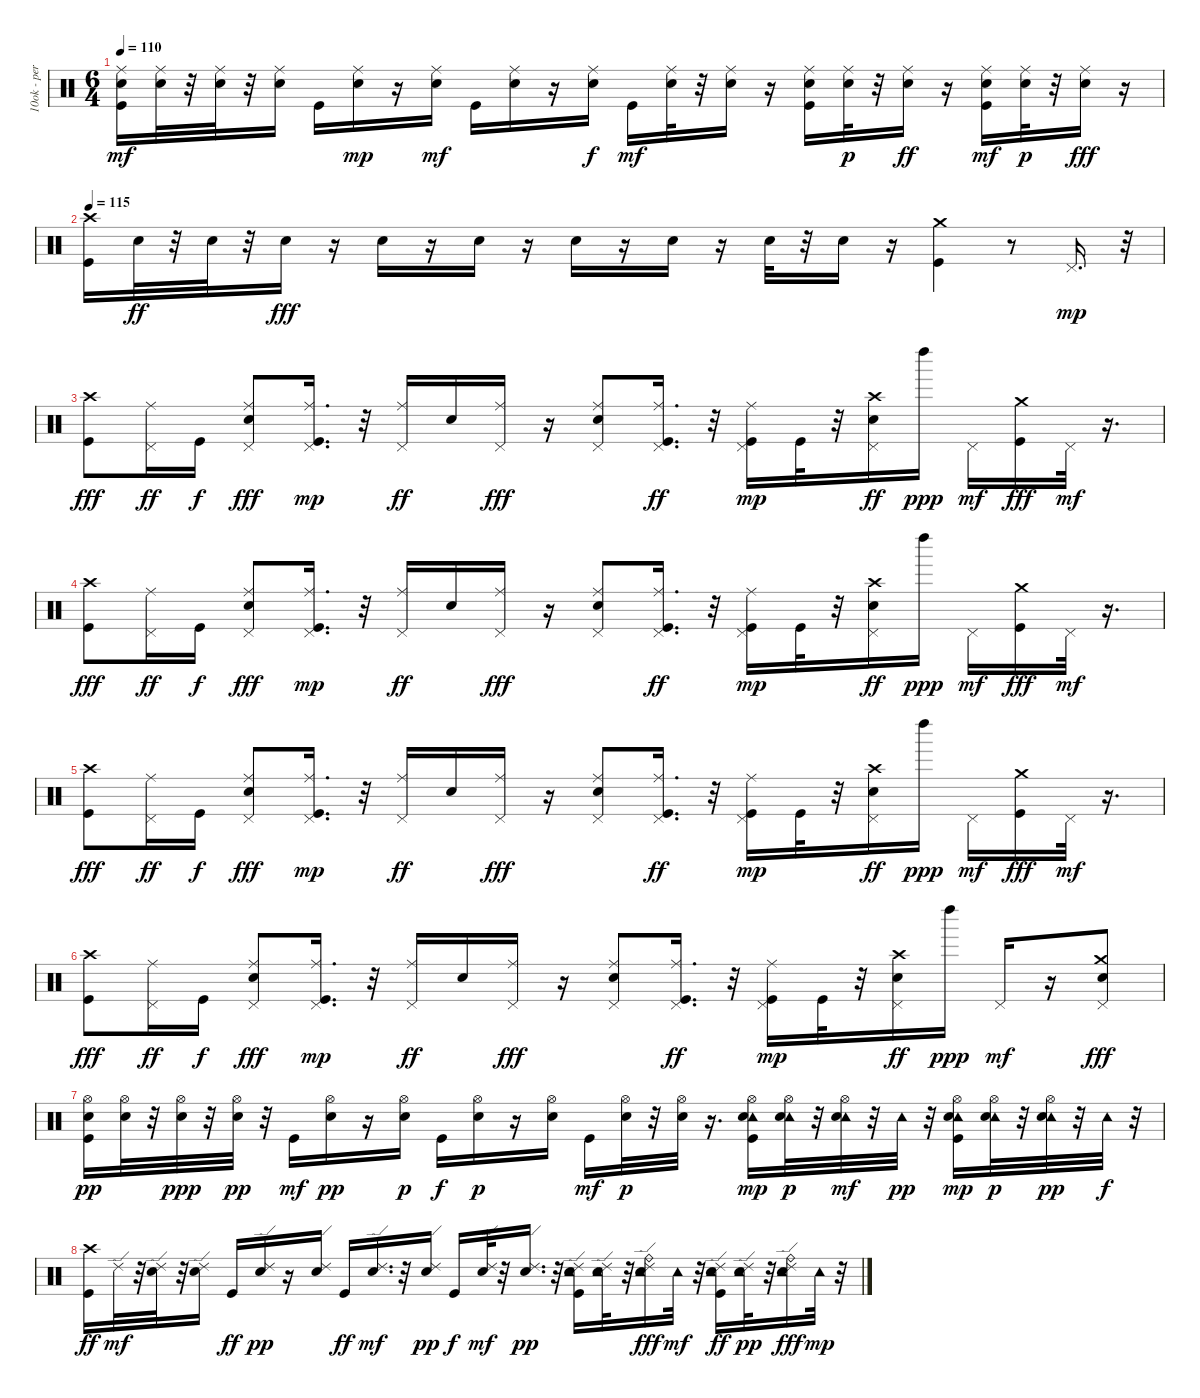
\track ("10ok - percussioni" "10ok - per") {instrument percussion}
\staff {score}
\articulation defaults
\ts (6 4)
\tempo 110
\clef neutral
\ks c
("Snare (hit) 2" "Ride (middle)" "Kick (hit)").16{dy mf} ("Snare (hit) 2" "Ride (middle)").32 r.32 ("Snare (hit) 2" "Ride (middle)").32 r.32 ("Snare (hit) 2" "Ride (middle)").16 "Kick (hit)".16 ("Snare (hit) 2" "Ride (middle)").16{dy mp} r.16 ("Snare (hit) 2" "Ride (middle)").16{dy mf} "Kick (hit)".16 ("Snare (hit) 2" "Ride (middle)").16 r.16 ("Snare (hit) 2" "Ride (middle)").16{dy f} "Kick (hit)".16{dy mf} ("Snare (hit) 2" "Ride (middle)").32 r.32 ("Snare (hit) 2" "Ride (middle)").16 r.16 ("Snare (hit) 2" "Ride (middle)" "Kick (hit)").16 ("Snare (hit) 2" "Ride (middle)").32{dy p} r.32 ("Snare (hit) 2" "Ride (middle)").16{dy ff} r.16 ("Snare (hit) 2" "Ride (middle)" "Kick (hit)").16{dy mf} ("Snare (hit) 2" "Ride (middle)").32{dy p} r.32 ("Snare (hit) 2" "Ride (middle)").16{dy fff} r.16 |
\tempo 115
("Crash high (hit)" "Kick (hit)").16 "Snare (hit) 2".32{dy ff} r.32 "Snare (hit) 2".32 r.32 "Snare (hit) 2".16{dy fff} r.16 "Snare (hit) 2".16 r.16 "Snare (hit) 2".16 r.16 "Snare (hit) 2".16 r.16 "Snare (hit) 2".16 r.16 "Snare (hit) 2".32 r.32 "Snare (hit) 2".16 r.16 ("Crash medium (hit)" "Kick (hit)").4 r.8 "Pedal Hi-Hat (hit)".16{d dy mp} r.32 |
("Kick (hit)" "Crash high (hit)").8{dy fff} ("Pedal Hi-Hat (hit)" "Ride (middle)").16{dy ff} "Kick (hit)".16{dy f} ("Pedal Hi-Hat (hit)" "Ride (middle)" "Snare (hit) 2").8{dy fff} ("Pedal Hi-Hat (hit)" "Ride (middle)" "Kick (hit)").16{d dy mp} r.32 ("Pedal Hi-Hat (hit)" "Ride (middle)").16{dy ff} "Snare (hit) 2".16 ("Pedal Hi-Hat (hit)" "Ride (middle)").16{dy fff} r.16 ("Pedal Hi-Hat (hit)" "Ride (middle)" "Snare (hit) 2").8 ("Pedal Hi-Hat (hit)" "Ride (middle)" "Kick (hit)").16{d dy ff} r.32 ("Pedal Hi-Hat (hit)" "Ride (middle)" "Kick (hit)").16{dy mp} "Kick (hit)".32 r.32 ("Crash high (hit)" "Pedal Hi-Hat (hit)" "Snare (hit) 2").16{dy ff} "Left Maraca (hit)".16{dy ppp} "Pedal Hi-Hat (hit)".16{dy mf} ("Crash medium (hit)" "Kick (hit)").16{dy fff} "Pedal Hi-Hat (hit)".32{dy mf} r.16{d} |
("Kick (hit)" "Crash high (hit)").8{dy fff} ("Pedal Hi-Hat (hit)" "Ride (middle)").16{dy ff} "Kick (hit)".16{dy f} ("Pedal Hi-Hat (hit)" "Ride (middle)" "Snare (hit) 2").8{dy fff} ("Pedal Hi-Hat (hit)" "Ride (middle)" "Kick (hit)").16{d dy mp} r.32 ("Pedal Hi-Hat (hit)" "Ride (middle)").16{dy ff} "Snare (hit) 2".16 ("Pedal Hi-Hat (hit)" "Ride (middle)").16{dy fff} r.16 ("Pedal Hi-Hat (hit)" "Ride (middle)" "Snare (hit) 2").8 ("Pedal Hi-Hat (hit)" "Ride (middle)" "Kick (hit)").16{d dy ff} r.32 ("Pedal Hi-Hat (hit)" "Ride (middle)" "Kick (hit)").16{dy mp} "Kick (hit)".32 r.32 ("Crash high (hit)" "Pedal Hi-Hat (hit)" "Snare (hit) 2").16{dy ff} "Left Maraca (hit)".16{dy ppp} "Pedal Hi-Hat (hit)".16{dy mf} ("Crash medium (hit)" "Kick (hit)").16{dy fff} "Pedal Hi-Hat (hit)".32{dy mf} r.16{d} |
("Kick (hit)" "Crash high (hit)").8{dy fff} ("Pedal Hi-Hat (hit)" "Ride (middle)").16{dy ff} "Kick (hit)".16{dy f} ("Pedal Hi-Hat (hit)" "Ride (middle)" "Snare (hit) 2").8{dy fff} ("Pedal Hi-Hat (hit)" "Ride (middle)" "Kick (hit)").16{d dy mp} r.32 ("Pedal Hi-Hat (hit)" "Ride (middle)").16{dy ff} "Snare (hit) 2".16 ("Pedal Hi-Hat (hit)" "Ride (middle)").16{dy fff} r.16 ("Pedal Hi-Hat (hit)" "Ride (middle)" "Snare (hit) 2").8 ("Pedal Hi-Hat (hit)" "Ride (middle)" "Kick (hit)").16{d dy ff} r.32 ("Pedal Hi-Hat (hit)" "Ride (middle)" "Kick (hit)").16{dy mp} "Kick (hit)".32 r.32 ("Crash high (hit)" "Pedal Hi-Hat (hit)" "Snare (hit) 2").16{dy ff} "Left Maraca (hit)".16{dy ppp} "Pedal Hi-Hat (hit)".16{dy mf} ("Crash medium (hit)" "Kick (hit)").16{dy fff} "Pedal Hi-Hat (hit)".32{dy mf} r.16{d} |
("Kick (hit)" "Crash high (hit)").8{dy fff} ("Pedal Hi-Hat (hit)" "Ride (middle)").16{dy ff} "Kick (hit)".16{dy f} ("Pedal Hi-Hat (hit)" "Ride (middle)" "Snare (hit) 2").8{dy fff} ("Pedal Hi-Hat (hit)" "Ride (middle)" "Kick (hit)").16{d dy mp} r.32 ("Pedal Hi-Hat (hit)" "Ride (middle)").16{dy ff} "Snare (hit) 2".16 ("Pedal Hi-Hat (hit)" "Ride (middle)").16{dy fff} r.16 ("Pedal Hi-Hat (hit)" "Ride (middle)" "Snare (hit) 2").8 ("Pedal Hi-Hat (hit)" "Ride (middle)" "Kick (hit)").16{d dy ff} r.32 ("Pedal Hi-Hat (hit)" "Ride (middle)" "Kick (hit)").16{dy mp} "Kick (hit)".32 r.32 ("Crash high (hit)" "Pedal Hi-Hat (hit)" "Snare (hit) 2").16{dy ff} "Left Maraca (hit)".16{dy ppp} "Pedal Hi-Hat (hit)".16{dy mf} r.16 ("Pedal Hi-Hat (hit)" "Snare (hit) 2" "Crash medium (hit)").8{dy fff} |
("Snare (hit) 2" "Kick (hit)" "Hi-Hat (open)").16{dy pp} ("Snare (hit) 2" "Hi-Hat (open)").32 r.32 ("Snare (hit) 2" "Hi-Hat (open)").32{dy ppp} r.32 ("Snare (hit) 2" "Hi-Hat (open)").32{dy pp} r.32 "Kick (hit)".16{dy mf} ("Snare (hit) 2" "Hi-Hat (open)").16{dy pp} r.16 ("Snare (hit) 2" "Hi-Hat (open)").16{dy p} "Kick (hit)".16{dy f} ("Snare (hit) 2" "Hi-Hat (open)").16{dy p} r.16 ("Snare (hit) 2" "Hi-Hat (open)").16 "Kick (hit)".16{dy mf} ("Snare (hit) 2" "Hi-Hat (open)").32{dy p} r.32 ("Snare (hit) 2" "Hi-Hat (open)").32 r.16{d} ("Tambourine (hit)" "Snare (hit) 2" "Kick (hit)" "Hi-Hat (open)").16{dy mp} ("Tambourine (hit)" "Snare (hit) 2" "Hi-Hat (open)").32{dy p} r.32 ("Tambourine (hit)" "Snare (hit) 2" "Hi-Hat (open)").32{dy mf} r.32 "Tambourine (hit)".32{dy pp} r.32 ("Tambourine (hit)" "Snare (hit) 2" "Kick (hit)" "Hi-Hat (open)").16{dy mp} ("Tambourine (hit)" "Snare (hit) 2" "Hi-Hat (open)").32{dy p} r.32 ("Tambourine (hit)" "Snare (hit) 2" "Hi-Hat (open)").32{dy pp} r.32 "Tambourine (hit)".32{dy f} r.32 |
("Kick (hit)" "Crash high (hit)").16{dy ff} "Ride (edge) 2".32{dy mf} r.32 ("Snare (hit) 2" "Ride (edge) 2").32 r.32 ("Snare (hit) 2" "Ride (edge) 2").16 "Kick (hit)".16{dy ff} ("Snare (hit) 2" "Ride (edge) 2").16{dy pp} r.16 ("Snare (hit) 2" "Ride (edge) 2").16 "Kick (hit)".16{dy ff} ("Snare (hit) 2" "Ride (edge) 2").16{d dy mf} r.32 ("Snare (hit) 2" "Ride (edge) 2").16{dy pp} "Kick (hit)".16{dy f} ("Snare (hit) 2" "Ride (edge) 2").32{dy mf} r.32 ("Snare (hit) 2" "Ride (edge) 2").16{d dy pp} r.32 ("Tambourine (hit)" "Snare (hit) 2" "Kick (hit)" "Ride (edge) 2").16 ("Tambourine (hit)" "Snare (hit) 2" "Ride (edge) 2").32 r.32 ("Tambourine (hit)" "Snare (hit) 2" "Ride (bell)" "Ride (edge) 2").16{dy fff} "Tambourine (hit)".32{dy mf} r.32 ("Tambourine (hit)" "Snare (hit) 2" "Kick (hit)" "Ride (edge) 2").16{dy ff} ("Tambourine (hit)" "Snare (hit) 2" "Ride (edge) 2").32{dy pp} r.32 ("Tambourine (hit)" "Snare (hit) 2" "Ride (bell)" "Ride (edge) 2").16{dy fff} "Tambourine (hit)".32{dy mp} r.32
